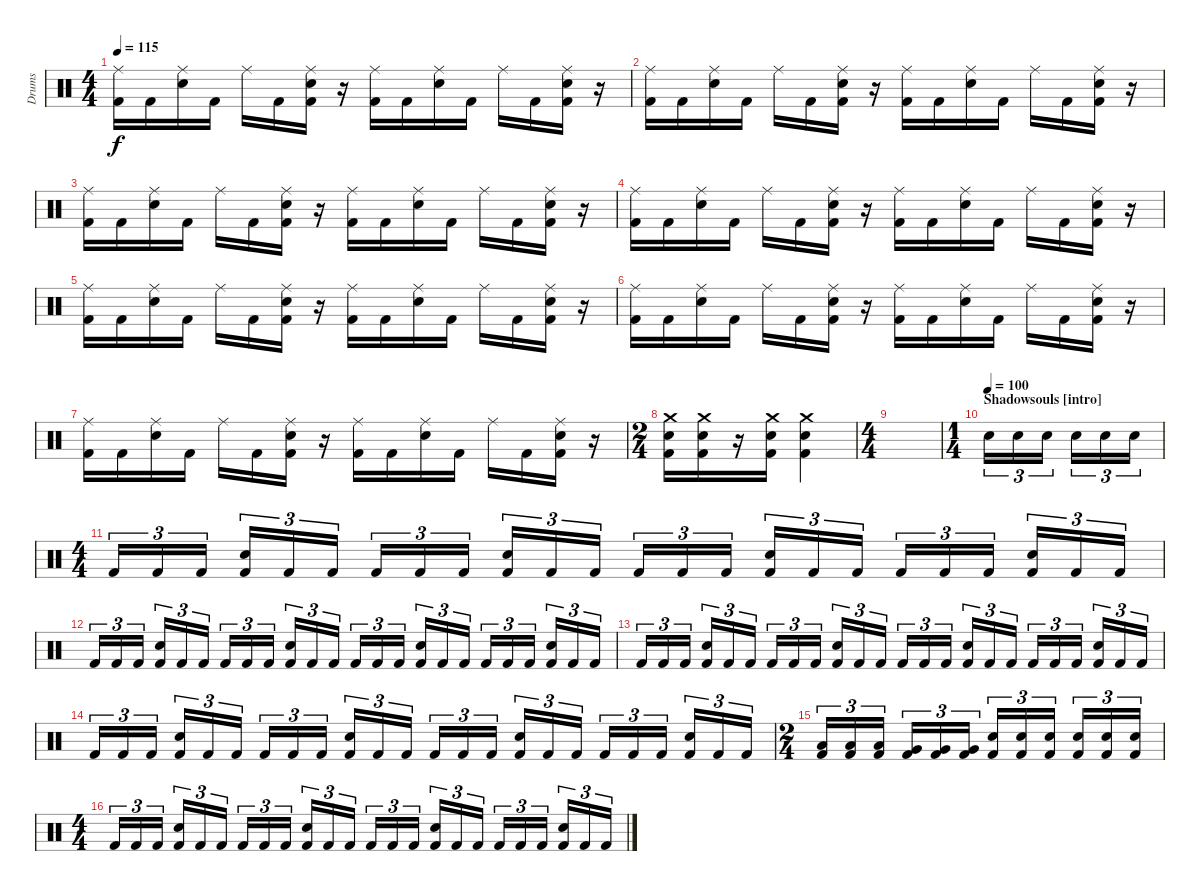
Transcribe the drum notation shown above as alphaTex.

\track ("Drums" "Drums") {instrument percussion}
\staff {score}
\articulation defaults
\ts (4 4)
\tempo 115
\clef neutral
\ks c
("Kick (hit) 2" "Ride (middle)").16{dy f} "Kick (hit) 2".16 ("Ride (middle)" "Electric Snare (hit)").16 "Kick (hit) 2".16 "Ride (middle)".16 "Kick (hit) 2".16 ("Kick (hit) 2" "Ride (middle)" "Electric Snare (hit)").16 r.16 ("Kick (hit) 2" "Ride (middle)").16 "Kick (hit) 2".16 ("Ride (middle)" "Electric Snare (hit)").16 "Kick (hit) 2".16 "Ride (middle)".16 "Kick (hit) 2".16 ("Kick (hit) 2" "Ride (middle)" "Electric Snare (hit)").16 r.16 |
("Kick (hit) 2" "Ride (middle)").16 "Kick (hit) 2".16 ("Ride (middle)" "Electric Snare (hit)").16 "Kick (hit) 2".16 "Ride (middle)".16 "Kick (hit) 2".16 ("Kick (hit) 2" "Ride (middle)" "Electric Snare (hit)").16 r.16 ("Kick (hit) 2" "Ride (middle)").16 "Kick (hit) 2".16 ("Ride (middle)" "Electric Snare (hit)").16 "Kick (hit) 2".16 "Ride (middle)".16 "Kick (hit) 2".16 ("Kick (hit) 2" "Ride (middle)" "Electric Snare (hit)").16 r.16 |
("Kick (hit) 2" "Ride (middle)").16 "Kick (hit) 2".16 ("Ride (middle)" "Electric Snare (hit)").16 "Kick (hit) 2".16 "Ride (middle)".16 "Kick (hit) 2".16 ("Kick (hit) 2" "Ride (middle)" "Electric Snare (hit)").16 r.16 ("Kick (hit) 2" "Ride (middle)").16 "Kick (hit) 2".16 ("Ride (middle)" "Electric Snare (hit)").16 "Kick (hit) 2".16 "Ride (middle)".16 "Kick (hit) 2".16 ("Kick (hit) 2" "Ride (middle)" "Electric Snare (hit)").16 r.16 |
("Kick (hit) 2" "Ride (middle)").16 "Kick (hit) 2".16 ("Ride (middle)" "Electric Snare (hit)").16 "Kick (hit) 2".16 "Ride (middle)".16 "Kick (hit) 2".16 ("Kick (hit) 2" "Ride (middle)" "Electric Snare (hit)").16 r.16 ("Kick (hit) 2" "Ride (middle)").16 "Kick (hit) 2".16 ("Ride (middle)" "Electric Snare (hit)").16 "Kick (hit) 2".16 "Ride (middle)".16 "Kick (hit) 2".16 ("Kick (hit) 2" "Ride (middle)" "Electric Snare (hit)").16 r.16 |
("Kick (hit) 2" "Ride (middle)").16 "Kick (hit) 2".16 ("Ride (middle)" "Electric Snare (hit)").16 "Kick (hit) 2".16 "Ride (middle)".16 "Kick (hit) 2".16 ("Kick (hit) 2" "Ride (middle)" "Electric Snare (hit)").16 r.16 ("Kick (hit) 2" "Ride (middle)").16 "Kick (hit) 2".16 ("Ride (middle)" "Electric Snare (hit)").16 "Kick (hit) 2".16 "Ride (middle)".16 "Kick (hit) 2".16 ("Kick (hit) 2" "Ride (middle)" "Electric Snare (hit)").16 r.16 |
("Kick (hit) 2" "Ride (middle)").16 "Kick (hit) 2".16 ("Ride (middle)" "Electric Snare (hit)").16 "Kick (hit) 2".16 "Ride (middle)".16 "Kick (hit) 2".16 ("Kick (hit) 2" "Ride (middle)" "Electric Snare (hit)").16 r.16 ("Kick (hit) 2" "Ride (middle)").16 "Kick (hit) 2".16 ("Ride (middle)" "Electric Snare (hit)").16 "Kick (hit) 2".16 "Ride (middle)".16 "Kick (hit) 2".16 ("Kick (hit) 2" "Ride (middle)" "Electric Snare (hit)").16 r.16 |
("Kick (hit) 2" "Ride (middle)").16 "Kick (hit) 2".16 ("Ride (middle)" "Electric Snare (hit)").16 "Kick (hit) 2".16 "Ride (middle)".16 "Kick (hit) 2".16 ("Kick (hit) 2" "Ride (middle)" "Electric Snare (hit)").16 r.16 ("Kick (hit) 2" "Ride (middle)").16 "Kick (hit) 2".16 ("Ride (middle)" "Electric Snare (hit)").16 "Kick (hit) 2".16 "Ride (middle)".16 "Kick (hit) 2".16 ("Kick (hit) 2" "Ride (middle)" "Electric Snare (hit)").16 r.16 |
\ts (2 4)
("Kick (hit) 2" "Electric Snare (hit)" "Crash medium (hit)").16 ("Kick (hit) 2" "Electric Snare (hit)" "Crash medium (hit)").16 r.16 ("Kick (hit) 2" "Electric Snare (hit)" "Crash medium (hit)").16 ("Kick (hit) 2" "Electric Snare (hit)" "Crash medium (hit)").4 |
\ts (4 4)
|
\ts (1 4)
\section ("" "Shadowsouls [intro]")
\tempo 115
\tempo (100)
"Electric Snare (hit)".16{tu (3 2)} "Electric Snare (hit)".16{tu (3 2)} "Electric Snare (hit)".16{tu (3 2)} "Electric Snare (hit)".16{tu (3 2)} "Electric Snare (hit)".16{tu (3 2)} "Electric Snare (hit)".16{tu (3 2)} |
\ts (4 4)
"Kick (hit) 2".16{tu (3 2)} "Kick (hit) 2".16{tu (3 2)} "Kick (hit) 2".16{tu (3 2)} ("Electric Snare (hit)" "Kick (hit) 2").16{tu (3 2)} "Kick (hit) 2".16{tu (3 2)} "Kick (hit) 2".16{tu (3 2)} "Kick (hit) 2".16{tu (3 2)} "Kick (hit) 2".16{tu (3 2)} "Kick (hit) 2".16{tu (3 2)} ("Electric Snare (hit)" "Kick (hit) 2").16{tu (3 2)} "Kick (hit) 2".16{tu (3 2)} "Kick (hit) 2".16{tu (3 2)} "Kick (hit) 2".16{tu (3 2)} "Kick (hit) 2".16{tu (3 2)} "Kick (hit) 2".16{tu (3 2)} ("Electric Snare (hit)" "Kick (hit) 2").16{tu (3 2)} "Kick (hit) 2".16{tu (3 2)} "Kick (hit) 2".16{tu (3 2)} "Kick (hit) 2".16{tu (3 2)} "Kick (hit) 2".16{tu (3 2)} "Kick (hit) 2".16{tu (3 2)} ("Electric Snare (hit)" "Kick (hit) 2").16{tu (3 2)} "Kick (hit) 2".16{tu (3 2)} "Kick (hit) 2".16{tu (3 2)} |
"Kick (hit) 2".16{tu (3 2)} "Kick (hit) 2".16{tu (3 2)} "Kick (hit) 2".16{tu (3 2)} ("Electric Snare (hit)" "Kick (hit) 2").16{tu (3 2)} "Kick (hit) 2".16{tu (3 2)} "Kick (hit) 2".16{tu (3 2)} "Kick (hit) 2".16{tu (3 2)} "Kick (hit) 2".16{tu (3 2)} "Kick (hit) 2".16{tu (3 2)} ("Electric Snare (hit)" "Kick (hit) 2").16{tu (3 2)} "Kick (hit) 2".16{tu (3 2)} "Kick (hit) 2".16{tu (3 2)} "Kick (hit) 2".16{tu (3 2)} "Kick (hit) 2".16{tu (3 2)} "Kick (hit) 2".16{tu (3 2)} ("Electric Snare (hit)" "Kick (hit) 2").16{tu (3 2)} "Kick (hit) 2".16{tu (3 2)} "Kick (hit) 2".16{tu (3 2)} "Kick (hit) 2".16{tu (3 2)} "Kick (hit) 2".16{tu (3 2)} "Kick (hit) 2".16{tu (3 2)} ("Electric Snare (hit)" "Kick (hit) 2").16{tu (3 2)} "Kick (hit) 2".16{tu (3 2)} "Kick (hit) 2".16{tu (3 2)} |
"Kick (hit) 2".16{tu (3 2)} "Kick (hit) 2".16{tu (3 2)} "Kick (hit) 2".16{tu (3 2)} ("Electric Snare (hit)" "Kick (hit) 2").16{tu (3 2)} "Kick (hit) 2".16{tu (3 2)} "Kick (hit) 2".16{tu (3 2)} "Kick (hit) 2".16{tu (3 2)} "Kick (hit) 2".16{tu (3 2)} "Kick (hit) 2".16{tu (3 2)} ("Electric Snare (hit)" "Kick (hit) 2").16{tu (3 2)} "Kick (hit) 2".16{tu (3 2)} "Kick (hit) 2".16{tu (3 2)} "Kick (hit) 2".16{tu (3 2)} "Kick (hit) 2".16{tu (3 2)} "Kick (hit) 2".16{tu (3 2)} ("Electric Snare (hit)" "Kick (hit) 2").16{tu (3 2)} "Kick (hit) 2".16{tu (3 2)} "Kick (hit) 2".16{tu (3 2)} "Kick (hit) 2".16{tu (3 2)} "Kick (hit) 2".16{tu (3 2)} "Kick (hit) 2".16{tu (3 2)} ("Electric Snare (hit)" "Kick (hit) 2").16{tu (3 2)} "Kick (hit) 2".16{tu (3 2)} "Kick (hit) 2".16{tu (3 2)} |
"Kick (hit) 2".16{tu (3 2)} "Kick (hit) 2".16{tu (3 2)} "Kick (hit) 2".16{tu (3 2)} ("Electric Snare (hit)" "Kick (hit) 2").16{tu (3 2)} "Kick (hit) 2".16{tu (3 2)} "Kick (hit) 2".16{tu (3 2)} "Kick (hit) 2".16{tu (3 2)} "Kick (hit) 2".16{tu (3 2)} "Kick (hit) 2".16{tu (3 2)} ("Electric Snare (hit)" "Kick (hit) 2").16{tu (3 2)} "Kick (hit) 2".16{tu (3 2)} "Kick (hit) 2".16{tu (3 2)} "Kick (hit) 2".16{tu (3 2)} "Kick (hit) 2".16{tu (3 2)} "Kick (hit) 2".16{tu (3 2)} ("Electric Snare (hit)" "Kick (hit) 2").16{tu (3 2)} "Kick (hit) 2".16{tu (3 2)} "Kick (hit) 2".16{tu (3 2)} "Kick (hit) 2".16{tu (3 2)} "Kick (hit) 2".16{tu (3 2)} "Kick (hit) 2".16{tu (3 2)} ("Electric Snare (hit)" "Kick (hit) 2").16{tu (3 2)} "Kick (hit) 2".16{tu (3 2)} "Kick (hit) 2".16{tu (3 2)} |
\ts (2 4)
("Low Tom (hit)" "Kick (hit) 2").16{tu (3 2)} ("Low Tom (hit)" "Kick (hit) 2").16{tu (3 2)} ("Low Tom (hit)" "Kick (hit) 2").16{tu (3 2)} ("Very Low Tom (hit)" "Kick (hit) 2").16{tu (3 2)} ("Very Low Tom (hit)" "Kick (hit) 2").16{tu (3 2)} ("Very Low Tom (hit)" "Kick (hit) 2").16{tu (3 2)} ("Electric Snare (hit)" "Kick (hit) 2").16{tu (3 2)} ("Electric Snare (hit)" "Kick (hit) 2").16{tu (3 2)} ("Electric Snare (hit)" "Kick (hit) 2").16{tu (3 2)} ("Electric Snare (hit)" "Kick (hit) 2").16{tu (3 2)} ("Electric Snare (hit)" "Kick (hit) 2").16{tu (3 2)} ("Electric Snare (hit)" "Kick (hit) 2").16{tu (3 2)} |
\ts (4 4)
"Kick (hit) 2".16{tu (3 2)} "Kick (hit) 2".16{tu (3 2)} "Kick (hit) 2".16{tu (3 2)} ("Electric Snare (hit)" "Kick (hit) 2").16{tu (3 2)} "Kick (hit) 2".16{tu (3 2)} "Kick (hit) 2".16{tu (3 2)} "Kick (hit) 2".16{tu (3 2)} "Kick (hit) 2".16{tu (3 2)} "Kick (hit) 2".16{tu (3 2)} ("Electric Snare (hit)" "Kick (hit) 2").16{tu (3 2)} "Kick (hit) 2".16{tu (3 2)} "Kick (hit) 2".16{tu (3 2)} "Kick (hit) 2".16{tu (3 2)} "Kick (hit) 2".16{tu (3 2)} "Kick (hit) 2".16{tu (3 2)} ("Electric Snare (hit)" "Kick (hit) 2").16{tu (3 2)} "Kick (hit) 2".16{tu (3 2)} "Kick (hit) 2".16{tu (3 2)} "Kick (hit) 2".16{tu (3 2)} "Kick (hit) 2".16{tu (3 2)} "Kick (hit) 2".16{tu (3 2)} ("Electric Snare (hit)" "Kick (hit) 2").16{tu (3 2)} "Kick (hit) 2".16{tu (3 2)} "Kick (hit) 2".16{tu (3 2)}
